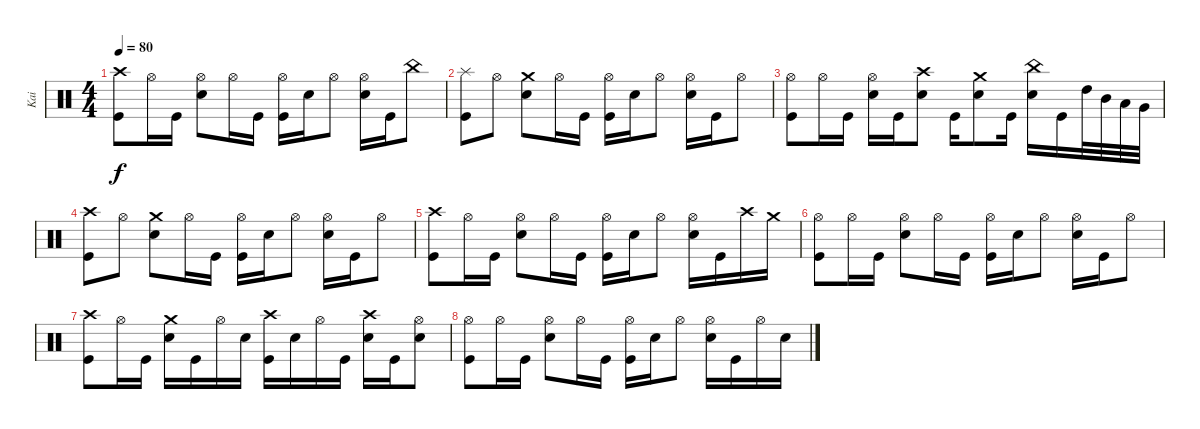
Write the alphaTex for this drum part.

\track ("Kai" "Kai") {instrument percussion}
\staff {score}
\articulation defaults
\ts (4 4)
\tempo 80
\clef neutral
\ks c
("Kick (hit)" "Crash high (hit)").8{dy f} "Hi-Hat (open)".16 "Kick (hit)".16 ("Snare (hit) 2" "Hi-Hat (open)").8 "Hi-Hat (open)".16 "Kick (hit)".16 ("Kick (hit)" "Hi-Hat (open)").16 "Snare (hit) 2".16 "Hi-Hat (open)".8 ("Snare (hit) 2" "Hi-Hat (open)").16 "Kick (hit)".16 "China (hit)".8 |
("Kick (hit)" "Splash (hit)").8 "Hi-Hat (open)".8 ("Snare (hit) 2" "Crash medium (hit)").8 "Hi-Hat (open)".16 "Kick (hit)".16 ("Kick (hit)" "Hi-Hat (open)").16 "Snare (hit) 2".16 "Hi-Hat (open)".8 ("Snare (hit) 2" "Hi-Hat (open)").16 "Kick (hit)".16 "Hi-Hat (open)".8 |
("Hi-Hat (open)" "Kick (hit)").8 "Hi-Hat (open)".16 "Kick (hit)".16 ("Snare (hit) 2" "Hi-Hat (open)").16 "Kick (hit)".16 ("Crash high (hit)" "Snare (hit) 2").8 "Kick (hit)".16 ("Snare (hit) 2" "Crash medium (hit)").8 "Kick (hit)".16 ("Snare (hit) 2" "China (hit)").16 "Kick (hit)".16 "High Tom (hit)".32 "Mid Tom (hit)".32 "Low Tom (hit)".32 "Very Low Tom (hit)".32 |
("Kick (hit)" "Crash high (hit)").8 "Hi-Hat (open)".8 ("Snare (hit) 2" "Crash medium (hit)").8 "Hi-Hat (open)".16 "Kick (hit)".16 ("Kick (hit)" "Hi-Hat (open)").16 "Snare (hit) 2".16 "Hi-Hat (open)".8 ("Snare (hit) 2" "Hi-Hat (open)").16 "Kick (hit)".16 "Hi-Hat (open)".8 |
("Kick (hit)" "Crash high (hit)").8 "Hi-Hat (open)".16 "Kick (hit)".16 ("Snare (hit) 2" "Hi-Hat (open)").8 "Hi-Hat (open)".16 "Kick (hit)".16 ("Kick (hit)" "Hi-Hat (open)").16 "Snare (hit) 2".16 "Hi-Hat (open)".8 ("Snare (hit) 2" "Hi-Hat (open)").16 "Kick (hit)".16 "Crash high (hit)".16 "Crash medium (hit)".16 |
("Kick (hit)" "Hi-Hat (open)").8 "Hi-Hat (open)".16 "Kick (hit)".16 ("Snare (hit) 2" "Hi-Hat (open)").8 "Hi-Hat (open)".16 "Kick (hit)".16 ("Kick (hit)" "Hi-Hat (open)").16 "Snare (hit) 2".16 "Hi-Hat (open)".8 ("Snare (hit) 2" "Hi-Hat (open)").16 "Kick (hit)".16 "Hi-Hat (open)".8 |
("Crash high (hit)" "Kick (hit)").8 "Hi-Hat (open)".16 "Kick (hit)".16 ("Snare (hit) 2" "Crash medium (hit)").16 "Kick (hit)".16 "Hi-Hat (open)".16 "Snare (hit) 2".16 ("Kick (hit)" "Crash high (hit)").16 "Snare (hit) 2".16 "Hi-Hat (open)".16 "Kick (hit)".16 ("Snare (hit) 2" "Crash high (hit)").16 "Kick (hit)".16 ("Hi-Hat (open)" "Snare (hit) 2").8 |
("Kick (hit)" "Hi-Hat (open)").8 "Hi-Hat (open)".16 "Kick (hit)".16 ("Snare (hit) 2" "Hi-Hat (open)").8 "Hi-Hat (open)".16 "Kick (hit)".16 ("Kick (hit)" "Hi-Hat (open)").16 "Snare (hit) 2".16 "Hi-Hat (open)".8 ("Snare (hit) 2" "Hi-Hat (open)").16 "Kick (hit)".16 "Hi-Hat (open)".16 "Snare (hit) 2".16
